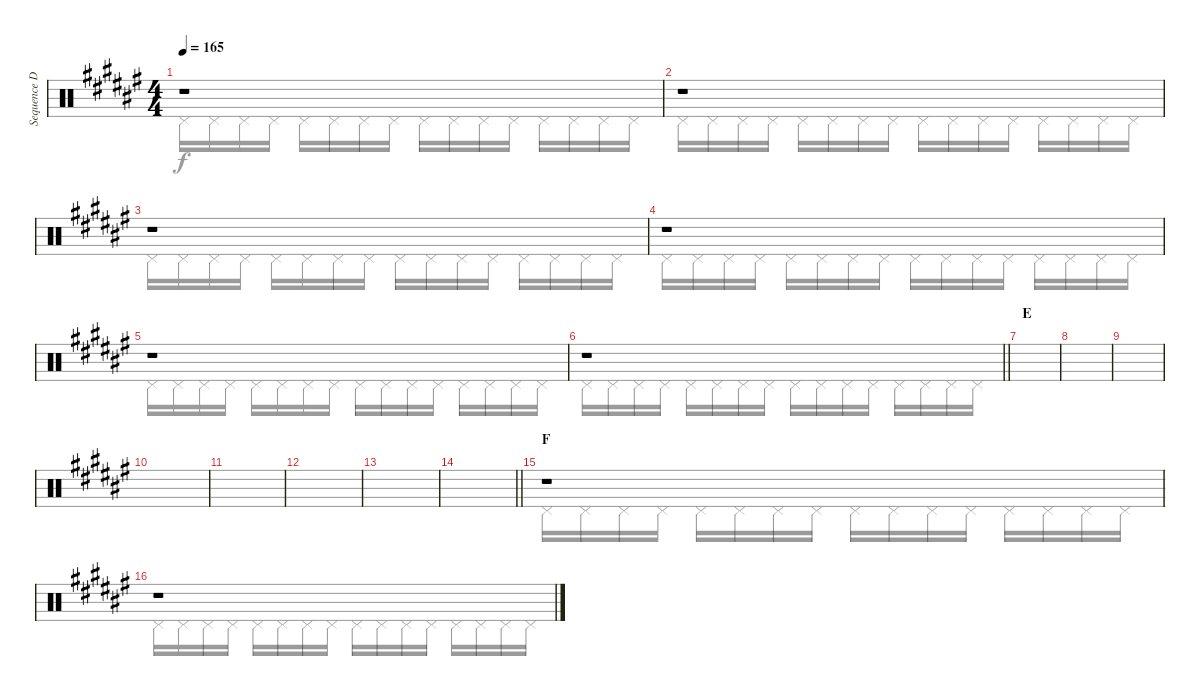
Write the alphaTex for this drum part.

\track ("Sequence Drums" "Sequence D") {instrument percussion}
\staff {score}
\articulation defaults
\voice
\ts (4 4)
\tempo 165
\clef neutral
\ks f#
r.1{dy p} |
r.1 |
r.1 |
r.1 |
r.1 |
\barLineRight lightlight
r.1 |
\section ("" "E")
|
|
|
|
|
|
|
\barLineRight lightlight
|
\section ("" "F")
r.1 |
r.1
\voice
\clef neutral
\ottava regular
\simile none
\ks f# "Pedal Hi-Hat (hit)".16{dy f} "Pedal Hi-Hat (hit)".16 "Pedal Hi-Hat (hit)".16 "Pedal Hi-Hat (hit)".16 "Pedal Hi-Hat (hit)".16 "Pedal Hi-Hat (hit)".16 "Pedal Hi-Hat (hit)".16 "Pedal Hi-Hat (hit)".16 "Pedal Hi-Hat (hit)".16 "Pedal Hi-Hat (hit)".16 "Pedal Hi-Hat (hit)".16 "Pedal Hi-Hat (hit)".16 "Pedal Hi-Hat (hit)".16 "Pedal Hi-Hat (hit)".16 "Pedal Hi-Hat (hit)".16 "Pedal Hi-Hat (hit)".16
|
"Pedal Hi-Hat (hit)".16 "Pedal Hi-Hat (hit)".16 "Pedal Hi-Hat (hit)".16 "Pedal Hi-Hat (hit)".16 "Pedal Hi-Hat (hit)".16 "Pedal Hi-Hat (hit)".16 "Pedal Hi-Hat (hit)".16 "Pedal Hi-Hat (hit)".16 "Pedal Hi-Hat (hit)".16 "Pedal Hi-Hat (hit)".16 "Pedal Hi-Hat (hit)".16 "Pedal Hi-Hat (hit)".16 "Pedal Hi-Hat (hit)".16 "Pedal Hi-Hat (hit)".16 "Pedal Hi-Hat (hit)".16 "Pedal Hi-Hat (hit)".16 |
"Pedal Hi-Hat (hit)".16 "Pedal Hi-Hat (hit)".16 "Pedal Hi-Hat (hit)".16 "Pedal Hi-Hat (hit)".16 "Pedal Hi-Hat (hit)".16 "Pedal Hi-Hat (hit)".16 "Pedal Hi-Hat (hit)".16 "Pedal Hi-Hat (hit)".16 "Pedal Hi-Hat (hit)".16 "Pedal Hi-Hat (hit)".16 "Pedal Hi-Hat (hit)".16 "Pedal Hi-Hat (hit)".16 "Pedal Hi-Hat (hit)".16 "Pedal Hi-Hat (hit)".16 "Pedal Hi-Hat (hit)".16 "Pedal Hi-Hat (hit)".16 |
"Pedal Hi-Hat (hit)".16 "Pedal Hi-Hat (hit)".16 "Pedal Hi-Hat (hit)".16 "Pedal Hi-Hat (hit)".16 "Pedal Hi-Hat (hit)".16 "Pedal Hi-Hat (hit)".16 "Pedal Hi-Hat (hit)".16 "Pedal Hi-Hat (hit)".16 "Pedal Hi-Hat (hit)".16 "Pedal Hi-Hat (hit)".16 "Pedal Hi-Hat (hit)".16 "Pedal Hi-Hat (hit)".16 "Pedal Hi-Hat (hit)".16 "Pedal Hi-Hat (hit)".16 "Pedal Hi-Hat (hit)".16 "Pedal Hi-Hat (hit)".16 |
"Pedal Hi-Hat (hit)".16 "Pedal Hi-Hat (hit)".16 "Pedal Hi-Hat (hit)".16 "Pedal Hi-Hat (hit)".16 "Pedal Hi-Hat (hit)".16 "Pedal Hi-Hat (hit)".16 "Pedal Hi-Hat (hit)".16 "Pedal Hi-Hat (hit)".16 "Pedal Hi-Hat (hit)".16 "Pedal Hi-Hat (hit)".16 "Pedal Hi-Hat (hit)".16 "Pedal Hi-Hat (hit)".16 "Pedal Hi-Hat (hit)".16 "Pedal Hi-Hat (hit)".16 "Pedal Hi-Hat (hit)".16 "Pedal Hi-Hat (hit)".16 |
\barLineRight lightlight "Pedal Hi-Hat (hit)".16 "Pedal Hi-Hat (hit)".16 "Pedal Hi-Hat (hit)".16 "Pedal Hi-Hat (hit)".16 "Pedal Hi-Hat (hit)".16 "Pedal Hi-Hat (hit)".16 "Pedal Hi-Hat (hit)".16 "Pedal Hi-Hat (hit)".16 "Pedal Hi-Hat (hit)".16 "Pedal Hi-Hat (hit)".16 "Pedal Hi-Hat (hit)".16 "Pedal Hi-Hat (hit)".16 "Pedal Hi-Hat (hit)".16 "Pedal Hi-Hat (hit)".16 "Pedal Hi-Hat (hit)".16 "Pedal Hi-Hat (hit)".16
|
|
|
|
|
|
|
|
\barLineRight lightlight
|
"Pedal Hi-Hat (hit)".16 "Pedal Hi-Hat (hit)".16 "Pedal Hi-Hat (hit)".16 "Pedal Hi-Hat (hit)".16 "Pedal Hi-Hat (hit)".16 "Pedal Hi-Hat (hit)".16 "Pedal Hi-Hat (hit)".16 "Pedal Hi-Hat (hit)".16 "Pedal Hi-Hat (hit)".16 "Pedal Hi-Hat (hit)".16 "Pedal Hi-Hat (hit)".16 "Pedal Hi-Hat (hit)".16 "Pedal Hi-Hat (hit)".16 "Pedal Hi-Hat (hit)".16 "Pedal Hi-Hat (hit)".16 "Pedal Hi-Hat (hit)".16 |
"Pedal Hi-Hat (hit)".16 "Pedal Hi-Hat (hit)".16 "Pedal Hi-Hat (hit)".16 "Pedal Hi-Hat (hit)".16 "Pedal Hi-Hat (hit)".16 "Pedal Hi-Hat (hit)".16 "Pedal Hi-Hat (hit)".16 "Pedal Hi-Hat (hit)".16 "Pedal Hi-Hat (hit)".16 "Pedal Hi-Hat (hit)".16 "Pedal Hi-Hat (hit)".16 "Pedal Hi-Hat (hit)".16 "Pedal Hi-Hat (hit)".16 "Pedal Hi-Hat (hit)".16 "Pedal Hi-Hat (hit)".16 "Pedal Hi-Hat (hit)".16
